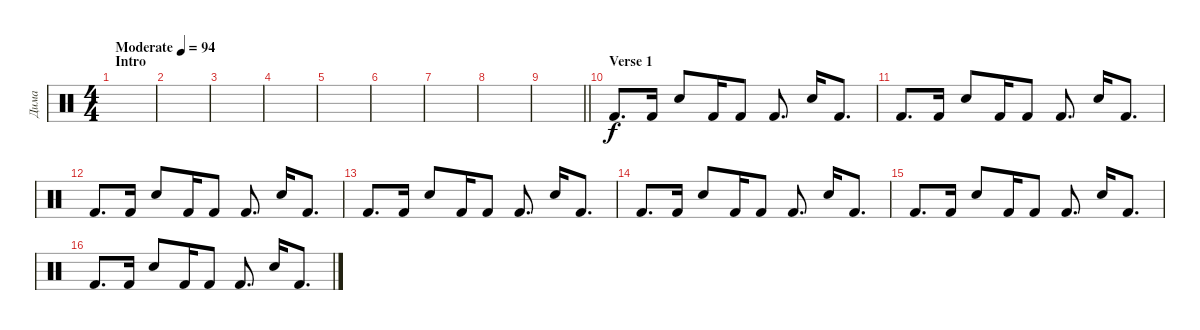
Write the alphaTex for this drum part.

\track ("Дима" "Дима") {instrument percussion}
\staff {score}
\articulation defaults
\ts (4 4)
\section ("" "Intro")
\tempo (94 "Moderate")
\clef neutral
\ks c
|
|
|
|
|
|
|
|
\barLineRight lightlight
|
\section ("" "Verse 1")
"Kick (hit) 2".8{d} "Kick (hit) 2".16 "Snare (hit) 2".8 "Kick (hit) 2".16 "Kick (hit) 2".8 "Kick (hit) 2".8{d} "Snare (hit) 2".16 "Kick (hit) 2".8{d} |
"Kick (hit) 2".8{d} "Kick (hit) 2".16 "Snare (hit) 2".8 "Kick (hit) 2".16 "Kick (hit) 2".8 "Kick (hit) 2".8{d} "Snare (hit) 2".16 "Kick (hit) 2".8{d} |
"Kick (hit) 2".8{d} "Kick (hit) 2".16 "Snare (hit) 2".8 "Kick (hit) 2".16 "Kick (hit) 2".8 "Kick (hit) 2".8{d} "Snare (hit) 2".16 "Kick (hit) 2".8{d} |
"Kick (hit) 2".8{d} "Kick (hit) 2".16 "Snare (hit) 2".8 "Kick (hit) 2".16 "Kick (hit) 2".8 "Kick (hit) 2".8{d} "Snare (hit) 2".16 "Kick (hit) 2".8{d} |
"Kick (hit) 2".8{d} "Kick (hit) 2".16 "Snare (hit) 2".8 "Kick (hit) 2".16 "Kick (hit) 2".8 "Kick (hit) 2".8{d} "Snare (hit) 2".16 "Kick (hit) 2".8{d} |
"Kick (hit) 2".8{d} "Kick (hit) 2".16 "Snare (hit) 2".8 "Kick (hit) 2".16 "Kick (hit) 2".8 "Kick (hit) 2".8{d} "Snare (hit) 2".16 "Kick (hit) 2".8{d} |
"Kick (hit) 2".8{d} "Kick (hit) 2".16 "Snare (hit) 2".8 "Kick (hit) 2".16 "Kick (hit) 2".8 "Kick (hit) 2".8{d} "Snare (hit) 2".16 "Kick (hit) 2".8{d}
